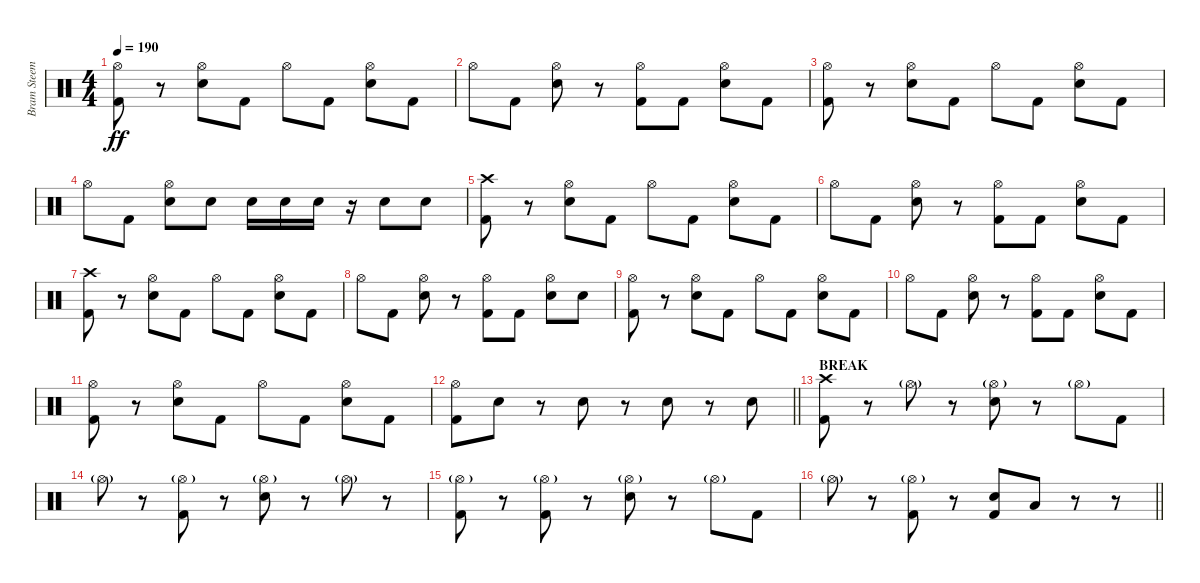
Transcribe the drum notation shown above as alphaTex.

\track ("Bram Steemans" "Bram Steem") {instrument percussion}
\staff {score}
\articulation defaults
\ts (4 4)
\tempo 190
\clef neutral
\ks c
("Hi-Hat (open)" "Kick (hit) 2").8{dy ff} r.8 ("Hi-Hat (open)" "Snare (hit) 2").8 "Kick (hit) 2".8 "Hi-Hat (open)".8 "Kick (hit) 2".8 ("Hi-Hat (open)" "Snare (hit) 2").8 "Kick (hit) 2".8 |
"Hi-Hat (open)".8 "Kick (hit) 2".8 ("Hi-Hat (open)" "Snare (hit) 2").8 r.8 ("Hi-Hat (open)" "Kick (hit) 2").8 "Kick (hit) 2".8 ("Hi-Hat (open)" "Snare (hit) 2").8 "Kick (hit) 2".8 |
("Hi-Hat (open)" "Kick (hit) 2").8 r.8 ("Hi-Hat (open)" "Snare (hit) 2").8 "Kick (hit) 2".8 "Hi-Hat (open)".8 "Kick (hit) 2".8 ("Hi-Hat (open)" "Snare (hit) 2").8 "Kick (hit) 2".8 |
"Hi-Hat (open)".8 "Kick (hit) 2".8 ("Hi-Hat (open)" "Snare (hit) 2").8 "Snare (hit) 2".8 "Snare (hit) 2".16 "Snare (hit) 2".16 "Snare (hit) 2".16 r.16 "Snare (hit) 2".8 "Snare (hit) 2".8 |
("Crash high (hit)" "Kick (hit) 2").8 r.8 ("Hi-Hat (open)" "Snare (hit) 2").8 "Kick (hit) 2".8 "Hi-Hat (open)".8 "Kick (hit) 2".8 ("Hi-Hat (open)" "Snare (hit) 2").8 "Kick (hit) 2".8 |
"Hi-Hat (open)".8 "Kick (hit) 2".8 ("Hi-Hat (open)" "Snare (hit) 2").8 r.8 ("Hi-Hat (open)" "Kick (hit) 2").8 "Kick (hit) 2".8 ("Hi-Hat (open)" "Snare (hit) 2").8 "Kick (hit) 2".8 |
("Crash high (hit)" "Kick (hit) 2").8 r.8 ("Hi-Hat (open)" "Snare (hit) 2").8 "Kick (hit) 2".8 "Hi-Hat (open)".8 "Kick (hit) 2".8 ("Hi-Hat (open)" "Snare (hit) 2").8 "Kick (hit) 2".8 |
"Hi-Hat (open)".8 "Kick (hit) 2".8 ("Hi-Hat (open)" "Snare (hit) 2").8 r.8 ("Hi-Hat (open)" "Kick (hit) 2").8 "Kick (hit) 2".8 ("Hi-Hat (open)" "Snare (hit) 2").8 "Snare (hit) 2".8 |
("Hi-Hat (open)" "Kick (hit) 2").8 r.8 ("Hi-Hat (open)" "Snare (hit) 2").8 "Kick (hit) 2".8 "Hi-Hat (open)".8 "Kick (hit) 2".8 ("Hi-Hat (open)" "Snare (hit) 2").8 "Kick (hit) 2".8 |
"Hi-Hat (open)".8 "Kick (hit) 2".8 ("Hi-Hat (open)" "Snare (hit) 2").8 r.8 ("Hi-Hat (open)" "Kick (hit) 2").8 "Kick (hit) 2".8 ("Hi-Hat (open)" "Snare (hit) 2").8 "Kick (hit) 2".8 |
("Hi-Hat (open)" "Kick (hit) 2").8 r.8 ("Hi-Hat (open)" "Snare (hit) 2").8 "Kick (hit) 2".8 "Hi-Hat (open)".8 "Kick (hit) 2".8 ("Hi-Hat (open)" "Snare (hit) 2").8 "Kick (hit) 2".8 |
\barLineRight lightlight
("Hi-Hat (open)" "Kick (hit) 2").8 "Snare (hit) 2".8 r.8 "Snare (hit) 2".8 r.8 "Snare (hit) 2".8 r.8 "Snare (hit) 2".8 |
\section ("" "BREAK")
("Crash high (hit)" "Kick (hit) 2").8 r.8 "Hi-Hat (open)"{g}.8 r.8 ("Hi-Hat (open)"{g} "Snare (hit) 2").8 r.8 "Hi-Hat (open)"{g}.8 "Kick (hit) 2".8 |
"Hi-Hat (open)"{g}.8 r.8 ("Hi-Hat (open)"{g} "Kick (hit) 2").8 r.8 ("Hi-Hat (open)"{g} "Snare (hit) 2").8 r.8 "Hi-Hat (open)"{g}.8 r.8 |
("Hi-Hat (open)"{g} "Kick (hit) 2").8 r.8 ("Hi-Hat (open)"{g} "Kick (hit) 2").8 r.8 ("Hi-Hat (open)"{g} "Snare (hit) 2").8 r.8 "Hi-Hat (open)"{g}.8 "Kick (hit) 2".8 |
\barLineRight lightlight "Hi-Hat (open)"{g}.8
r.8 ("Hi-Hat (open)"{g} "Kick (hit) 2").8 r.8 ("Snare (hit) 2" "Kick (hit) 2").8 "Low Floor Tom (hit)".8 r.8 r.8
